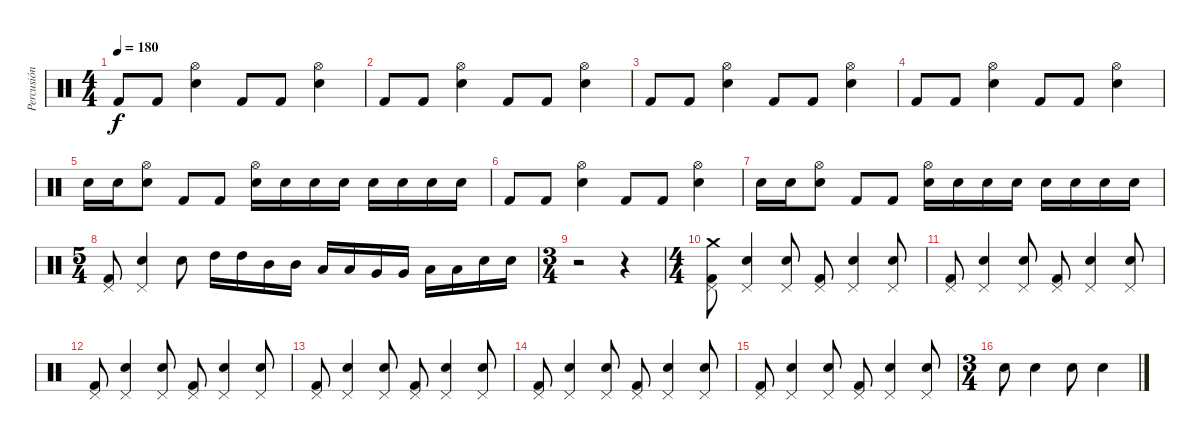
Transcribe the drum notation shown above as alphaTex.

\track ("Percusión" "Percusión") {instrument percussion}
\staff {score}
\articulation defaults
\ts (4 4)
\tempo 180
\clef neutral
\ks c "Kick (hit) 2".8{dy f} "Kick (hit) 2".8
("Electric Snare (hit)" "Hi-Hat (open)").4 "Kick (hit) 2".8 "Kick (hit) 2".8 ("Electric Snare (hit)" "Hi-Hat (open)").4 |
"Kick (hit) 2".8 "Kick (hit) 2".8 ("Electric Snare (hit)" "Hi-Hat (open)").4 "Kick (hit) 2".8 "Kick (hit) 2".8 ("Electric Snare (hit)" "Hi-Hat (open)").4 |
"Kick (hit) 2".8 "Kick (hit) 2".8 ("Electric Snare (hit)" "Hi-Hat (open)").4 "Kick (hit) 2".8 "Kick (hit) 2".8 ("Electric Snare (hit)" "Hi-Hat (open)").4 |
"Kick (hit) 2".8 "Kick (hit) 2".8 ("Electric Snare (hit)" "Hi-Hat (open)").4 "Kick (hit) 2".8 "Kick (hit) 2".8 ("Electric Snare (hit)" "Hi-Hat (open)").4 |
"Electric Snare (hit)".16 "Electric Snare (hit)".16 ("Electric Snare (hit)" "Hi-Hat (open)").8 "Kick (hit) 2".8 "Kick (hit) 2".8 ("Electric Snare (hit)" "Hi-Hat (open)").16 "Electric Snare (hit)".16 "Electric Snare (hit)".16 "Electric Snare (hit)".16 "Electric Snare (hit)".16 "Electric Snare (hit)".16 "Electric Snare (hit)".16 "Electric Snare (hit)".16 |
"Kick (hit) 2".8 "Kick (hit) 2".8 ("Electric Snare (hit)" "Hi-Hat (open)").4 "Kick (hit) 2".8 "Kick (hit) 2".8 ("Electric Snare (hit)" "Hi-Hat (open)").4 |
"Electric Snare (hit)".16 "Electric Snare (hit)".16 ("Electric Snare (hit)" "Hi-Hat (open)").8 "Kick (hit) 2".8 "Kick (hit) 2".8 ("Electric Snare (hit)" "Hi-Hat (open)").16 "Electric Snare (hit)".16 "Electric Snare (hit)".16 "Electric Snare (hit)".16 "Electric Snare (hit)".16 "Electric Snare (hit)".16 "Electric Snare (hit)".16 "Electric Snare (hit)".16 |
\ts (5 4)
("Kick (hit) 2" "Pedal Hi-Hat (hit)").8 ("Electric Snare (hit)" "Pedal Hi-Hat (hit)").4 "Electric Snare (hit)".8 "High Tom (hit)".16 "High Tom (hit)".16 "Mid Tom (hit)".16 "Mid Tom (hit)".16 "Low Tom (hit)".16 "Low Tom (hit)".16 "Very Low Tom (hit)".16 "Very Low Tom (hit)".16 "Low Floor Tom (hit)".16 "Low Floor Tom (hit)".16 "Electric Snare (hit)".16 "Electric Snare (hit)".16 |
\ts (3 4)
r.2 r.4 |
\ts (4 4)
("Kick (hit) 2" "Pedal Hi-Hat (hit)" "Crash medium (hit)").8 ("Electric Snare (hit)" "Pedal Hi-Hat (hit)").4 ("Electric Snare (hit)" "Pedal Hi-Hat (hit)").8 ("Kick (hit) 2" "Pedal Hi-Hat (hit)").8 ("Electric Snare (hit)" "Pedal Hi-Hat (hit)").4 ("Electric Snare (hit)" "Pedal Hi-Hat (hit)").8 |
("Kick (hit) 2" "Pedal Hi-Hat (hit)").8 ("Electric Snare (hit)" "Pedal Hi-Hat (hit)").4 ("Electric Snare (hit)" "Pedal Hi-Hat (hit)").8 ("Kick (hit) 2" "Pedal Hi-Hat (hit)").8 ("Electric Snare (hit)" "Pedal Hi-Hat (hit)").4 ("Electric Snare (hit)" "Pedal Hi-Hat (hit)").8 |
("Kick (hit) 2" "Pedal Hi-Hat (hit)").8 ("Electric Snare (hit)" "Pedal Hi-Hat (hit)").4 ("Electric Snare (hit)" "Pedal Hi-Hat (hit)").8 ("Kick (hit) 2" "Pedal Hi-Hat (hit)").8 ("Electric Snare (hit)" "Pedal Hi-Hat (hit)").4 ("Electric Snare (hit)" "Pedal Hi-Hat (hit)").8 |
("Kick (hit) 2" "Pedal Hi-Hat (hit)").8 ("Electric Snare (hit)" "Pedal Hi-Hat (hit)").4 ("Electric Snare (hit)" "Pedal Hi-Hat (hit)").8 ("Kick (hit) 2" "Pedal Hi-Hat (hit)").8 ("Electric Snare (hit)" "Pedal Hi-Hat (hit)").4 ("Electric Snare (hit)" "Pedal Hi-Hat (hit)").8 |
("Kick (hit) 2" "Pedal Hi-Hat (hit)").8 ("Electric Snare (hit)" "Pedal Hi-Hat (hit)").4 ("Electric Snare (hit)" "Pedal Hi-Hat (hit)").8 ("Kick (hit) 2" "Pedal Hi-Hat (hit)").8 ("Electric Snare (hit)" "Pedal Hi-Hat (hit)").4 ("Electric Snare (hit)" "Pedal Hi-Hat (hit)").8 |
("Kick (hit) 2" "Pedal Hi-Hat (hit)").8 ("Electric Snare (hit)" "Pedal Hi-Hat (hit)").4 ("Electric Snare (hit)" "Pedal Hi-Hat (hit)").8 ("Kick (hit) 2" "Pedal Hi-Hat (hit)").8 ("Electric Snare (hit)" "Pedal Hi-Hat (hit)").4 ("Electric Snare (hit)" "Pedal Hi-Hat (hit)").8 |
\ts (3 4)
"Electric Snare (hit)".8 "Electric Snare (hit)".4 "Electric Snare (hit)".8 "Electric Snare (hit)".4
